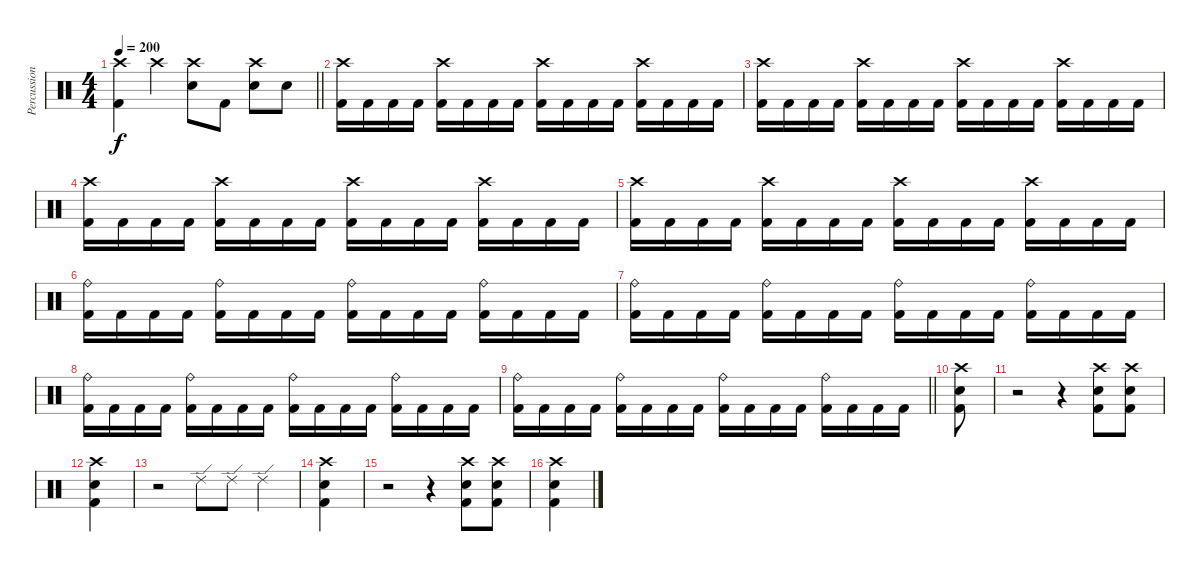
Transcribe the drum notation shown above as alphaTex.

\track ("Percussion" "Percussion") {instrument percussion}
\staff {score}
\articulation defaults
\ts (4 4)
\tempo 200
\clef neutral
\barLineRight lightlight
\ks c
("Crash high (hit)" "Kick (hit) 2").4{dy f} "Crash high (hit)".4 ("Crash high (hit)" "Electric Snare (hit)").8 "Kick (hit) 2".8 ("Crash high (hit)" "Electric Snare (hit)").8 "Electric Snare (hit)".8 |
("Crash high (hit)" "Kick (hit) 2").16 "Kick (hit) 2".16 "Kick (hit) 2".16 "Kick (hit) 2".16 ("Crash high (hit)" "Kick (hit) 2").16 "Kick (hit) 2".16 "Kick (hit) 2".16 "Kick (hit) 2".16 ("Crash high (hit)" "Kick (hit) 2").16 "Kick (hit) 2".16 "Kick (hit) 2".16 "Kick (hit) 2".16 ("Crash high (hit)" "Kick (hit) 2").16 "Kick (hit) 2".16 "Kick (hit) 2".16 "Kick (hit) 2".16 |
("Crash high (hit)" "Kick (hit) 2").16 "Kick (hit) 2".16 "Kick (hit) 2".16 "Kick (hit) 2".16 ("Crash high (hit)" "Kick (hit) 2").16 "Kick (hit) 2".16 "Kick (hit) 2".16 "Kick (hit) 2".16 ("Crash high (hit)" "Kick (hit) 2").16 "Kick (hit) 2".16 "Kick (hit) 2".16 "Kick (hit) 2".16 ("Crash high (hit)" "Kick (hit) 2").16 "Kick (hit) 2".16 "Kick (hit) 2".16 "Kick (hit) 2".16 |
("Crash high (hit)" "Kick (hit) 2").16 "Kick (hit) 2".16 "Kick (hit) 2".16 "Kick (hit) 2".16 ("Crash high (hit)" "Kick (hit) 2").16 "Kick (hit) 2".16 "Kick (hit) 2".16 "Kick (hit) 2".16 ("Crash high (hit)" "Kick (hit) 2").16 "Kick (hit) 2".16 "Kick (hit) 2".16 "Kick (hit) 2".16 ("Crash high (hit)" "Kick (hit) 2").16 "Kick (hit) 2".16 "Kick (hit) 2".16 "Kick (hit) 2".16 |
("Crash high (hit)" "Kick (hit) 2").16 "Kick (hit) 2".16 "Kick (hit) 2".16 "Kick (hit) 2".16 ("Crash high (hit)" "Kick (hit) 2").16 "Kick (hit) 2".16 "Kick (hit) 2".16 "Kick (hit) 2".16 ("Crash high (hit)" "Kick (hit) 2").16 "Kick (hit) 2".16 "Kick (hit) 2".16 "Kick (hit) 2".16 ("Crash high (hit)" "Kick (hit) 2").16 "Kick (hit) 2".16 "Kick (hit) 2".16 "Kick (hit) 2".16 |
("Ride (bell)" "Kick (hit) 2").16 "Kick (hit) 2".16 "Kick (hit) 2".16 "Kick (hit) 2".16 ("Ride (bell)" "Kick (hit) 2").16 "Kick (hit) 2".16 "Kick (hit) 2".16 "Kick (hit) 2".16 ("Ride (bell)" "Kick (hit) 2").16 "Kick (hit) 2".16 "Kick (hit) 2".16 "Kick (hit) 2".16 ("Ride (bell)" "Kick (hit) 2").16 "Kick (hit) 2".16 "Kick (hit) 2".16 "Kick (hit) 2".16 |
("Ride (bell)" "Kick (hit) 2").16 "Kick (hit) 2".16 "Kick (hit) 2".16 "Kick (hit) 2".16 ("Ride (bell)" "Kick (hit) 2").16 "Kick (hit) 2".16 "Kick (hit) 2".16 "Kick (hit) 2".16 ("Ride (bell)" "Kick (hit) 2").16 "Kick (hit) 2".16 "Kick (hit) 2".16 "Kick (hit) 2".16 ("Ride (bell)" "Kick (hit) 2").16 "Kick (hit) 2".16 "Kick (hit) 2".16 "Kick (hit) 2".16 |
("Ride (bell)" "Kick (hit) 2").16 "Kick (hit) 2".16 "Kick (hit) 2".16 "Kick (hit) 2".16 ("Ride (bell)" "Kick (hit) 2").16 "Kick (hit) 2".16 "Kick (hit) 2".16 "Kick (hit) 2".16 ("Ride (bell)" "Kick (hit) 2").16 "Kick (hit) 2".16 "Kick (hit) 2".16 "Kick (hit) 2".16 ("Ride (bell)" "Kick (hit) 2").16 "Kick (hit) 2".16 "Kick (hit) 2".16 "Kick (hit) 2".16 |
\barLineRight lightlight
("Ride (bell)" "Kick (hit) 2").16 "Kick (hit) 2".16 "Kick (hit) 2".16 "Kick (hit) 2".16 ("Ride (bell)" "Kick (hit) 2").16 "Kick (hit) 2".16 "Kick (hit) 2".16 "Kick (hit) 2".16 ("Ride (bell)" "Kick (hit) 2").16 "Kick (hit) 2".16 "Kick (hit) 2".16 "Kick (hit) 2".16 ("Ride (bell)" "Kick (hit) 2").16 "Kick (hit) 2".16 "Kick (hit) 2".16 "Kick (hit) 2".16 |
("Crash high (hit)" "Electric Snare (hit)" "Kick (hit) 2").8 |
r.2 r.4 ("Crash high (hit)" "Electric Snare (hit)" "Kick (hit) 2").8 ("Crash high (hit)" "Electric Snare (hit)" "Kick (hit) 2").8 |
("Crash high (hit)" "Electric Snare (hit)" "Kick (hit) 2").4 |
r.2 "Ride (edge) 2".8 "Ride (edge) 2".8 "Ride (edge) 2".4 |
("Crash high (hit)" "Electric Snare (hit)" "Kick (hit) 2").4 |
r.2 r.4 ("Crash high (hit)" "Electric Snare (hit)" "Kick (hit) 2").8 ("Crash high (hit)" "Electric Snare (hit)" "Kick (hit) 2").8 |
("Crash high (hit)" "Electric Snare (hit)" "Kick (hit) 2").4
